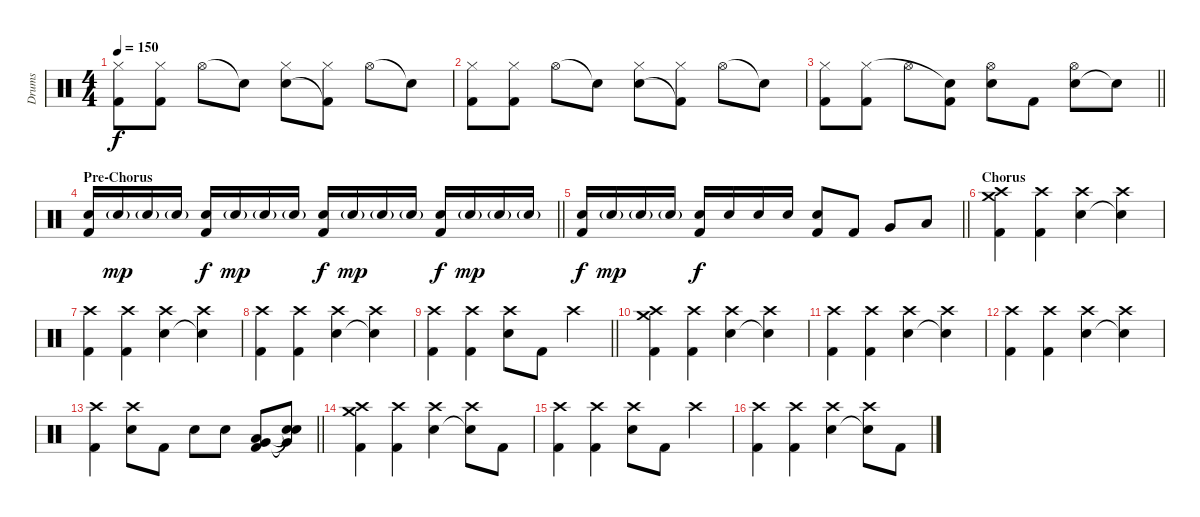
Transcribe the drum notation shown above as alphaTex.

\track ("Drums" "Drums") {instrument percussion}
\staff {score}
\articulation defaults
\ts (4 4)
\tempo 150
\clef neutral
\ks c
("Kick (hit) 2" "Hi-Hat (closed)").8{dy f} ("Kick (hit) 2" "Hi-Hat (closed)").8 "Hi-Hat (open)".8 "Snare (hit)"{t}.8 ("Electric Snare (hit)" "Hi-Hat (closed)").8 ("Kick (hit) 2"{t} "Hi-Hat (closed)").8 "Hi-Hat (open)".8 "Snare (hit)"{t}.8 |
("Kick (hit) 2" "Hi-Hat (closed)").8 ("Kick (hit) 2" "Hi-Hat (closed)").8 "Hi-Hat (open)".8 "Snare (hit)"{t}.8 ("Electric Snare (hit)" "Hi-Hat (closed)").8 ("Kick (hit) 2"{t} "Hi-Hat (closed)").8 "Hi-Hat (open)".8 "Snare (hit)"{t}.8 |
\barLineRight lightlight
("Kick (hit) 2" "Hi-Hat (closed)").8 ("Kick (hit) 2" "Hi-Hat (closed)").8 "Hi-Hat (open)".8 ("Kick (hit) 2" "Snare (hit)"{t}).8 ("Electric Snare (hit)" "Hi-Hat (open)").8 "Kick (hit) 2".8 ("Electric Snare (hit)" "Hi-Hat (open)").8 "Snare (hit)"{t}.8 |
\section ("" "Pre-Chorus")
\barLineRight lightlight
("Electric Snare (hit)" "Kick (hit) 2").16 "Electric Snare (hit)"{g}.16{dy mp} "Electric Snare (hit)"{g}.16 "Electric Snare (hit)"{g}.16 ("Electric Snare (hit)" "Kick (hit) 2").16{dy f} "Electric Snare (hit)"{g}.16{dy mp} "Electric Snare (hit)"{g}.16 "Electric Snare (hit)"{g}.16 ("Electric Snare (hit)" "Kick (hit) 2").16{dy f} "Electric Snare (hit)"{g}.16{dy mp} "Electric Snare (hit)"{g}.16 "Electric Snare (hit)"{g}.16 ("Electric Snare (hit)" "Kick (hit) 2").16{dy f} "Electric Snare (hit)"{g}.16{dy mp} "Electric Snare (hit)"{g}.16 "Electric Snare (hit)"{g}.16 |
\barLineRight lightlight
("Electric Snare (hit)" "Kick (hit) 2").16{dy f} "Electric Snare (hit)"{g}.16{dy mp} "Electric Snare (hit)"{g}.16 "Electric Snare (hit)"{g}.16 ("Electric Snare (hit)" "Kick (hit) 2").16{dy f} "Electric Snare (hit)".16 "Electric Snare (hit)".16 "Electric Snare (hit)".16 ("Electric Snare (hit)" "Kick (hit) 2").8 "Kick (hit) 2".8 "Very Low Tom (hit)".8 "Low Floor Tom (hit)".8 |
\section ("" "Chorus")
("Kick (hit) 2" "Crash medium (hit)" "Crash high (hit)").4 ("Kick (hit) 2" "Crash high (hit)").4 ("Electric Snare (hit)" "Crash high (hit)").4 ("Snare (hit)"{t} "Crash high (hit)").4 |
("Kick (hit) 2" "Crash high (hit)").4 ("Kick (hit) 2" "Crash high (hit)").4 ("Electric Snare (hit)" "Crash high (hit)").4 ("Snare (hit)"{t} "Crash high (hit)").4 |
("Kick (hit) 2" "Crash high (hit)").4 ("Kick (hit) 2" "Crash high (hit)").4 ("Electric Snare (hit)" "Crash high (hit)").4 ("Snare (hit)"{t} "Crash high (hit)").4 |
\barLineRight lightlight
("Kick (hit) 2" "Crash high (hit)").4 ("Kick (hit) 2" "Crash high (hit)").4 ("Electric Snare (hit)" "Crash high (hit)").8 "Kick (hit) 2".8 "Crash high (hit)".4 |
("Kick (hit) 2" "Crash medium (hit)" "Crash high (hit)").4 ("Kick (hit) 2" "Crash high (hit)").4 ("Electric Snare (hit)" "Crash high (hit)").4 ("Snare (hit)"{t} "Crash high (hit)").4 |
("Kick (hit) 2" "Crash high (hit)").4 ("Kick (hit) 2" "Crash high (hit)").4 ("Electric Snare (hit)" "Crash high (hit)").4 ("Snare (hit)"{t} "Crash high (hit)").4 |
("Kick (hit) 2" "Crash high (hit)").4 ("Kick (hit) 2" "Crash high (hit)").4 ("Electric Snare (hit)" "Crash high (hit)").4 ("Snare (hit)"{t} "Crash high (hit)").4 |
\barLineRight lightlight
("Kick (hit) 2" "Crash high (hit)").4 ("Electric Snare (hit)" "Crash high (hit)").8 "Kick (hit) 2".8 "Electric Snare (hit)".8 "Electric Snare (hit)".8 ("Very Low Tom (hit)" "Low Floor Tom (hit)" "Kick (hit) 2").8 ("Very Low Tom (hit)"{t} "Snare (hit)"{t} "Snare (hit)"{t}).8 |
("Kick (hit) 2" "Crash medium (hit)" "Crash high (hit)").4 ("Kick (hit) 2" "Crash high (hit)").4 ("Electric Snare (hit)" "Crash high (hit)").4 ("Snare (hit)"{t} "Crash high (hit)").8 "Kick (hit) 2".8 |
("Kick (hit) 2" "Crash high (hit)").4 ("Kick (hit) 2" "Crash high (hit)").4 ("Electric Snare (hit)" "Crash high (hit)").8 "Kick (hit) 2".8 "Crash high (hit)".4 |
("Kick (hit) 2" "Crash high (hit)").4 ("Kick (hit) 2" "Crash high (hit)").4 ("Electric Snare (hit)" "Crash high (hit)").4 ("Snare (hit)"{t} "Crash high (hit)").8 "Kick (hit) 2".8
